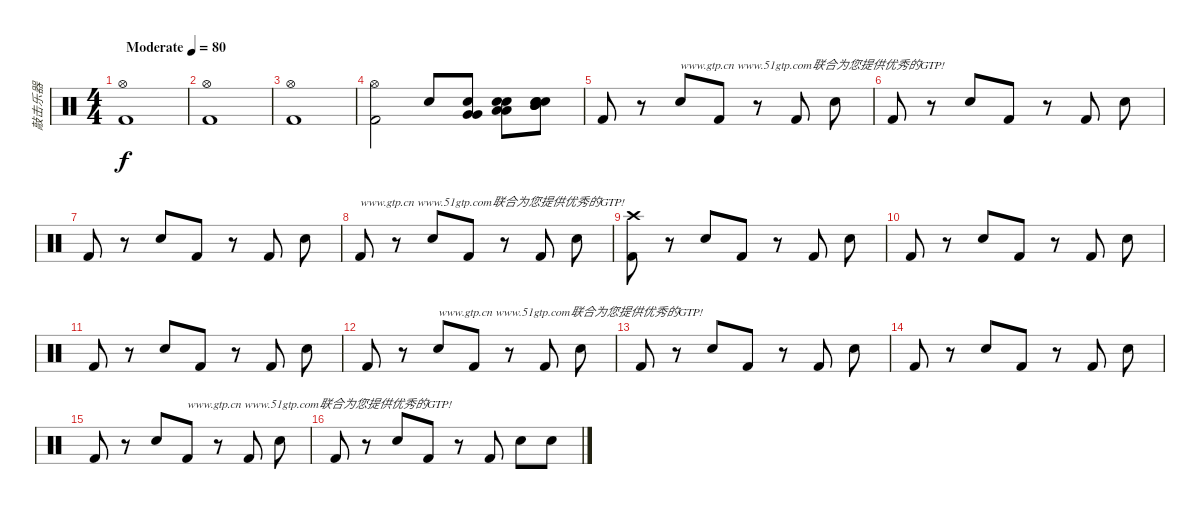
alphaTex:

\track ("敲击乐器" "敲击乐器") {instrument percussion}
\staff {score}
\articulation defaults
\ts (4 4)
\tempo (80 "Moderate")
\clef neutral
\ks c
("Kick (hit) 2" "Hi-Hat (open)").1{dy f} |
("Kick (hit) 2" "Hi-Hat (open)").1 |
("Kick (hit) 2" "Hi-Hat (open)").1 |
("Hi-Hat (open)" "Kick (hit) 2").2 "Electric Snare (hit)".8 ("Very Low Tom (hit)" "Electric Snare (hit)" "Very Low Tom (hit)").8 ("Low Tom (hit)" "Electric Snare (hit)" "Low Tom (hit)" "Electric Snare (hit)").8 ("Electric Snare (hit)" "Mid Tom (hit)" "Electric Snare (hit)" "Mid Tom (hit)" "Electric Snare (hit)" "Mid Tom (hit)").8 |
"Kick (hit) 2".8 r.8 "Electric Snare (hit)".8{txt "www.gtp.cn www.51gtp.com联合为您提供优秀的GTP!"} "Kick (hit) 2".8 r.8 "Kick (hit) 2".8 "Electric Snare (hit)".8 |
"Kick (hit) 2".8 r.8 "Electric Snare (hit)".8 "Kick (hit) 2".8 r.8 "Kick (hit) 2".8 "Electric Snare (hit)".8 |
"Kick (hit) 2".8 r.8 "Electric Snare (hit)".8 "Kick (hit) 2".8 r.8 "Kick (hit) 2".8 "Electric Snare (hit)".8 |
"Kick (hit) 2".8{txt "www.gtp.cn www.51gtp.com联合为您提供优秀的GTP!"} r.8 "Electric Snare (hit)".8 "Kick (hit) 2".8 r.8 "Kick (hit) 2".8 "Electric Snare (hit)".8 |
("Kick (hit) 2" "Crash high (hit)").8 r.8 "Electric Snare (hit)".8 "Kick (hit) 2".8 r.8 "Kick (hit) 2".8 "Electric Snare (hit)".8 |
"Kick (hit) 2".8 r.8 "Electric Snare (hit)".8 "Kick (hit) 2".8 r.8 "Kick (hit) 2".8 "Electric Snare (hit)".8 |
"Kick (hit) 2".8 r.8 "Electric Snare (hit)".8 "Kick (hit) 2".8 r.8 "Kick (hit) 2".8 "Electric Snare (hit)".8 |
"Kick (hit) 2".8 r.8 "Electric Snare (hit)".8{txt "www.gtp.cn www.51gtp.com联合为您提供优秀的GTP!"} "Kick (hit) 2".8 r.8 "Kick (hit) 2".8 "Electric Snare (hit)".8 |
"Kick (hit) 2".8 r.8 "Electric Snare (hit)".8 "Kick (hit) 2".8 r.8 "Kick (hit) 2".8 "Electric Snare (hit)".8 |
"Kick (hit) 2".8 r.8 "Electric Snare (hit)".8 "Kick (hit) 2".8 r.8 "Kick (hit) 2".8 "Electric Snare (hit)".8 |
"Kick (hit) 2".8 r.8 "Electric Snare (hit)".8 "Kick (hit) 2".8{txt "www.gtp.cn www.51gtp.com联合为您提供优秀的GTP!"} r.8 "Kick (hit) 2".8 "Electric Snare (hit)".8 |
"Kick (hit) 2".8 r.8 "Electric Snare (hit)".8 "Kick (hit) 2".8 r.8 "Kick (hit) 2".8 "Electric Snare (hit)".8 "Electric Snare (hit)".8
